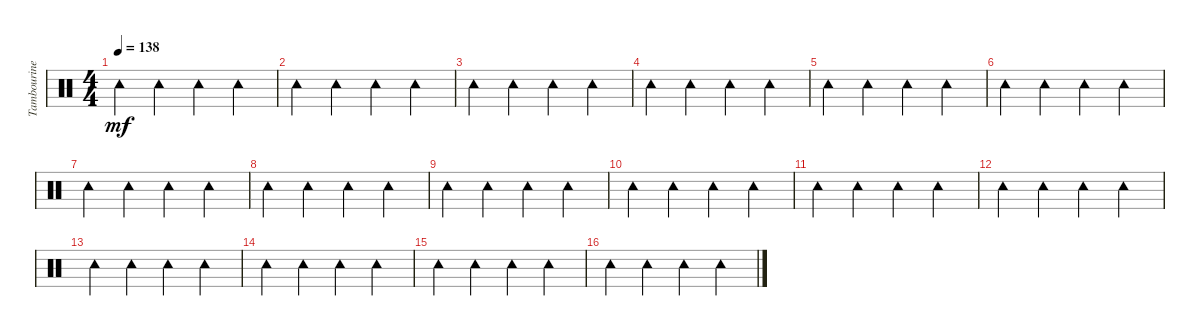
\track ("Tambourine" "Tambourine") {instrument percussion}
\staff {score}
\articulation defaults
\ts (4 4)
\tempo 138
\clef neutral
\ks c "Tambourine (hit)".4{dy mf} "Tambourine (hit)".4 "Tambourine (hit)".4 "Tambourine (hit)".4
|
"Tambourine (hit)".4 "Tambourine (hit)".4 "Tambourine (hit)".4 "Tambourine (hit)".4 |
"Tambourine (hit)".4 "Tambourine (hit)".4 "Tambourine (hit)".4 "Tambourine (hit)".4 |
"Tambourine (hit)".4 "Tambourine (hit)".4 "Tambourine (hit)".4 "Tambourine (hit)".4 |
"Tambourine (hit)".4 "Tambourine (hit)".4 "Tambourine (hit)".4 "Tambourine (hit)".4 |
"Tambourine (hit)".4 "Tambourine (hit)".4 "Tambourine (hit)".4 "Tambourine (hit)".4 |
"Tambourine (hit)".4 "Tambourine (hit)".4 "Tambourine (hit)".4 "Tambourine (hit)".4 |
"Tambourine (hit)".4 "Tambourine (hit)".4 "Tambourine (hit)".4 "Tambourine (hit)".4 |
"Tambourine (hit)".4 "Tambourine (hit)".4 "Tambourine (hit)".4 "Tambourine (hit)".4 |
"Tambourine (hit)".4 "Tambourine (hit)".4 "Tambourine (hit)".4 "Tambourine (hit)".4 |
"Tambourine (hit)".4 "Tambourine (hit)".4 "Tambourine (hit)".4 "Tambourine (hit)".4 |
"Tambourine (hit)".4 "Tambourine (hit)".4 "Tambourine (hit)".4 "Tambourine (hit)".4 |
"Tambourine (hit)".4 "Tambourine (hit)".4 "Tambourine (hit)".4 "Tambourine (hit)".4 |
"Tambourine (hit)".4 "Tambourine (hit)".4 "Tambourine (hit)".4 "Tambourine (hit)".4 |
"Tambourine (hit)".4 "Tambourine (hit)".4 "Tambourine (hit)".4 "Tambourine (hit)".4 |
"Tambourine (hit)".4 "Tambourine (hit)".4 "Tambourine (hit)".4 "Tambourine (hit)".4
